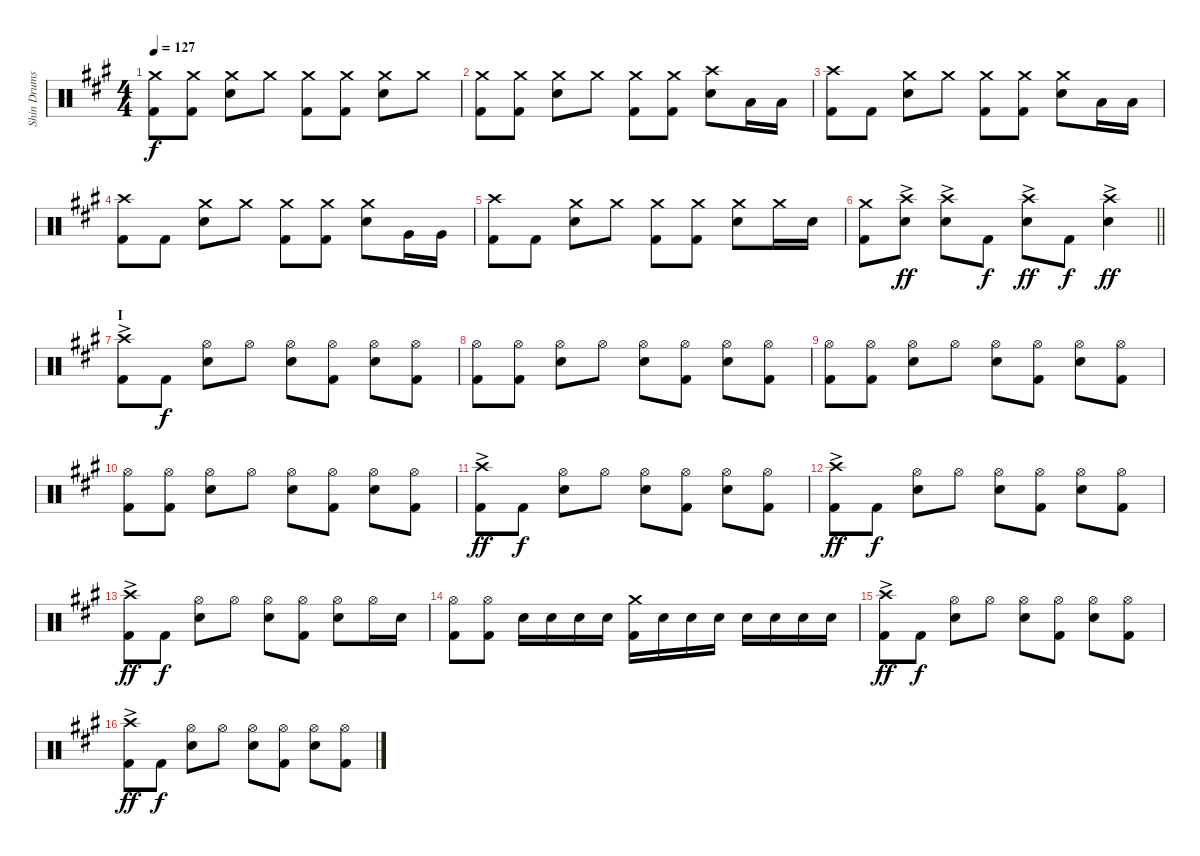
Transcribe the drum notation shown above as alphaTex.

\track ("Shin Drums" "Shin Drums") {instrument percussion}
\staff {score}
\articulation defaults
\ts (4 4)
\tempo 127
\clef neutral
\ks a
("Crash medium (hit)" "Kick (hit) 2").8{dy f} ("Crash medium (hit)" "Kick (hit) 2").8 ("Crash medium (hit)" "Snare (hit) 2").8 "Crash medium (hit)".8 ("Crash medium (hit)" "Kick (hit) 2").8 ("Crash medium (hit)" "Kick (hit) 2").8 ("Crash medium (hit)" "Snare (hit) 2").8 "Crash medium (hit)".8 |
("Crash medium (hit)" "Kick (hit) 2").8 ("Crash medium (hit)" "Kick (hit) 2").8 ("Crash medium (hit)" "Snare (hit) 2").8 "Crash medium (hit)".8 ("Crash medium (hit)" "Kick (hit) 2").8 ("Crash medium (hit)" "Kick (hit) 2").8 ("Crash high (hit)" "Snare (hit) 2").8 "Low Tom (hit)".16 "Low Tom (hit)".16 |
("Crash high (hit)" "Kick (hit) 2").8 "Kick (hit) 2".8 ("Crash medium (hit)" "Snare (hit) 2").8 "Crash medium (hit)".8 ("Crash medium (hit)" "Kick (hit) 2").8 ("Crash medium (hit)" "Kick (hit) 2").8 ("Crash medium (hit)" "Snare (hit) 2").8 "Low Tom (hit)".16 "Low Tom (hit)".16 |
("Crash high (hit)" "Kick (hit) 2").8 "Kick (hit) 2".8 ("Crash medium (hit)" "Snare (hit) 2").8 "Crash medium (hit)".8 ("Crash medium (hit)" "Kick (hit) 2").8 ("Crash medium (hit)" "Kick (hit) 2").8 ("Crash medium (hit)" "Snare (hit) 2").8 "Very Low Tom (hit)".16 "Very Low Tom (hit)".16 |
("Crash high (hit)" "Kick (hit) 2").8 "Kick (hit) 2".8 ("Crash medium (hit)" "Snare (hit) 2").8 "Crash medium (hit)".8 ("Crash medium (hit)" "Kick (hit) 2").8 ("Crash medium (hit)" "Kick (hit) 2").8 ("Crash medium (hit)" "Snare (hit) 2").8 "Crash medium (hit)".16 "Snare (hit) 2".16 |
\barLineRight lightlight
("Crash medium (hit)" "Kick (hit) 2").8 ("Crash high (hit)"{ac} "Snare (hit) 2").8{dy ff} ("Crash high (hit)"{ac} "Snare (hit) 2").8 "Kick (hit) 2".8{dy f} ("Crash high (hit)"{ac} "Snare (hit) 2").8{dy ff} "Kick (hit) 2".8{dy f} ("Crash high (hit)"{ac} "Snare (hit) 2").4{dy ff} |
\section ("" "I")
("Crash high (hit)"{ac} "Kick (hit) 2").8 "Kick (hit) 2".8{dy f} ("Hi-Hat (open)" "Snare (hit) 2").8 "Hi-Hat (open)".8 ("Hi-Hat (open)" "Snare (hit) 2").8 ("Hi-Hat (open)" "Kick (hit) 2").8 ("Hi-Hat (open)" "Snare (hit) 2").8 ("Hi-Hat (open)" "Kick (hit) 2").8 |
("Hi-Hat (open)" "Kick (hit) 2").8 ("Hi-Hat (open)" "Kick (hit) 2").8 ("Hi-Hat (open)" "Snare (hit) 2").8 "Hi-Hat (open)".8 ("Hi-Hat (open)" "Snare (hit) 2").8 ("Hi-Hat (open)" "Kick (hit) 2").8 ("Hi-Hat (open)" "Snare (hit) 2").8 ("Hi-Hat (open)" "Kick (hit) 2").8 |
("Hi-Hat (open)" "Kick (hit) 2").8 ("Hi-Hat (open)" "Kick (hit) 2").8 ("Hi-Hat (open)" "Snare (hit) 2").8 "Hi-Hat (open)".8 ("Hi-Hat (open)" "Snare (hit) 2").8 ("Hi-Hat (open)" "Kick (hit) 2").8 ("Hi-Hat (open)" "Snare (hit) 2").8 ("Hi-Hat (open)" "Kick (hit) 2").8 |
("Hi-Hat (open)" "Kick (hit) 2").8 ("Hi-Hat (open)" "Kick (hit) 2").8 ("Hi-Hat (open)" "Snare (hit) 2").8 "Hi-Hat (open)".8 ("Hi-Hat (open)" "Snare (hit) 2").8 ("Hi-Hat (open)" "Kick (hit) 2").8 ("Hi-Hat (open)" "Snare (hit) 2").8 ("Hi-Hat (open)" "Kick (hit) 2").8 |
("Crash high (hit)"{ac} "Kick (hit) 2").8{dy ff} "Kick (hit) 2".8{dy f} ("Hi-Hat (open)" "Snare (hit) 2").8 "Hi-Hat (open)".8 ("Hi-Hat (open)" "Snare (hit) 2").8 ("Hi-Hat (open)" "Kick (hit) 2").8 ("Hi-Hat (open)" "Snare (hit) 2").8 ("Hi-Hat (open)" "Kick (hit) 2").8 |
("Crash high (hit)"{ac} "Kick (hit) 2").8{dy ff} "Kick (hit) 2".8{dy f} ("Hi-Hat (open)" "Snare (hit) 2").8 "Hi-Hat (open)".8 ("Hi-Hat (open)" "Snare (hit) 2").8 ("Hi-Hat (open)" "Kick (hit) 2").8 ("Hi-Hat (open)" "Snare (hit) 2").8 ("Hi-Hat (open)" "Kick (hit) 2").8 |
("Crash high (hit)"{ac} "Kick (hit) 2").8{dy ff} "Kick (hit) 2".8{dy f} ("Hi-Hat (open)" "Snare (hit) 2").8 "Hi-Hat (open)".8 ("Hi-Hat (open)" "Snare (hit) 2").8 ("Hi-Hat (open)" "Kick (hit) 2").8 ("Hi-Hat (open)" "Snare (hit) 2").8 "Hi-Hat (open)".16 "Snare (hit) 2".16 |
("Hi-Hat (open)" "Kick (hit) 2").8 ("Hi-Hat (open)" "Kick (hit) 2").8 "Snare (hit) 2".16 "Snare (hit) 2".16 "Snare (hit) 2".16 "Snare (hit) 2".16 ("Crash medium (hit)" "Kick (hit) 2").16 "Snare (hit) 2".16 "Snare (hit) 2".16 "Snare (hit) 2".16 "Snare (hit) 2".16 "Snare (hit) 2".16 "Snare (hit) 2".16 "Snare (hit) 2".16 |
("Crash high (hit)"{ac} "Kick (hit) 2").8{dy ff} "Kick (hit) 2".8{dy f} ("Hi-Hat (open)" "Snare (hit) 2").8 "Hi-Hat (open)".8 ("Hi-Hat (open)" "Snare (hit) 2").8 ("Hi-Hat (open)" "Kick (hit) 2").8 ("Hi-Hat (open)" "Snare (hit) 2").8 ("Hi-Hat (open)" "Kick (hit) 2").8 |
("Crash high (hit)"{ac} "Kick (hit) 2").8{dy ff} "Kick (hit) 2".8{dy f} ("Hi-Hat (open)" "Snare (hit) 2").8 "Hi-Hat (open)".8 ("Hi-Hat (open)" "Snare (hit) 2").8 ("Hi-Hat (open)" "Kick (hit) 2").8 ("Hi-Hat (open)" "Snare (hit) 2").8 ("Hi-Hat (open)" "Kick (hit) 2").8
